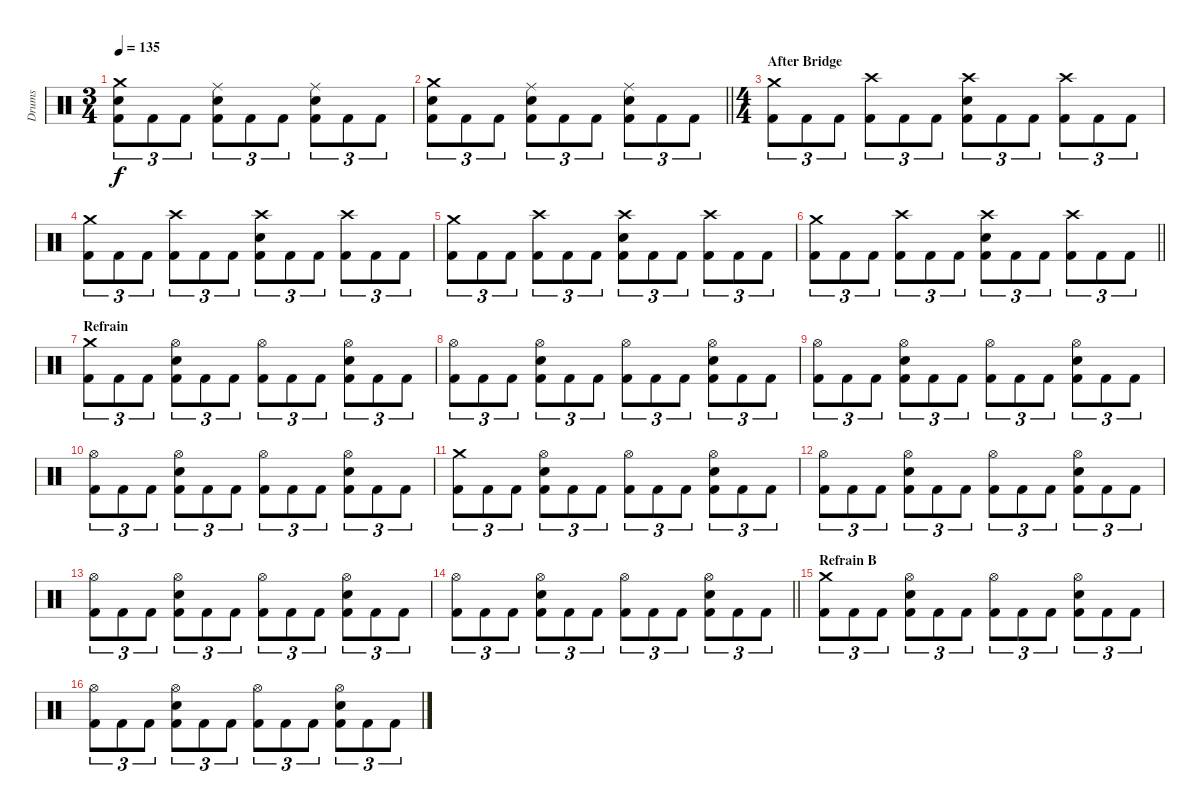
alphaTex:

\track ("Drums" "Drums") {instrument percussion}
\staff {score}
\articulation defaults
\ts (3 4)
\tempo 135
\clef neutral
\ks c
("Crash medium (hit)" "Snare (hit) 2" "Kick (hit) 2").8{tu (3 2) dy f} "Kick (hit) 2".8{tu (3 2)} "Kick (hit) 2".8{tu (3 2)} ("Ride (middle)" "Snare (hit) 2" "Kick (hit) 2").8{tu (3 2)} "Kick (hit) 2".8{tu (3 2)} "Kick (hit) 2".8{tu (3 2)} ("Ride (middle)" "Snare (hit) 2" "Kick (hit) 2").8{tu (3 2)} "Kick (hit) 2".8{tu (3 2)} "Kick (hit) 2".8{tu (3 2)} |
\barLineRight lightlight
("Crash medium (hit)" "Snare (hit) 2" "Kick (hit) 2").8{tu (3 2)} "Kick (hit) 2".8{tu (3 2)} "Kick (hit) 2".8{tu (3 2)} ("Ride (middle)" "Snare (hit) 2" "Kick (hit) 2").8{tu (3 2)} "Kick (hit) 2".8{tu (3 2)} "Kick (hit) 2".8{tu (3 2)} ("Ride (middle)" "Snare (hit) 2" "Kick (hit) 2").8{tu (3 2)} "Kick (hit) 2".8{tu (3 2)} "Kick (hit) 2".8{tu (3 2)} |
\ts (4 4)
\section ("" "After Bridge")
("Crash medium (hit)" "Kick (hit) 2").8{tu (3 2)} "Kick (hit) 2".8{tu (3 2)} "Kick (hit) 2".8{tu (3 2)} ("Crash high (hit)" "Kick (hit) 2").8{tu (3 2)} "Kick (hit) 2".8{tu (3 2)} "Kick (hit) 2".8{tu (3 2)} ("Crash high (hit)" "Snare (hit) 2" "Kick (hit) 2").8{tu (3 2)} "Kick (hit) 2".8{tu (3 2)} "Kick (hit) 2".8{tu (3 2)} ("Crash high (hit)" "Kick (hit) 2").8{tu (3 2)} "Kick (hit) 2".8{tu (3 2)} "Kick (hit) 2".8{tu (3 2)} |
("Crash medium (hit)" "Kick (hit) 2").8{tu (3 2)} "Kick (hit) 2".8{tu (3 2)} "Kick (hit) 2".8{tu (3 2)} ("Crash high (hit)" "Kick (hit) 2").8{tu (3 2)} "Kick (hit) 2".8{tu (3 2)} "Kick (hit) 2".8{tu (3 2)} ("Crash high (hit)" "Snare (hit) 2" "Kick (hit) 2").8{tu (3 2)} "Kick (hit) 2".8{tu (3 2)} "Kick (hit) 2".8{tu (3 2)} ("Crash high (hit)" "Kick (hit) 2").8{tu (3 2)} "Kick (hit) 2".8{tu (3 2)} "Kick (hit) 2".8{tu (3 2)} |
("Crash medium (hit)" "Kick (hit) 2").8{tu (3 2)} "Kick (hit) 2".8{tu (3 2)} "Kick (hit) 2".8{tu (3 2)} ("Crash high (hit)" "Kick (hit) 2").8{tu (3 2)} "Kick (hit) 2".8{tu (3 2)} "Kick (hit) 2".8{tu (3 2)} ("Crash high (hit)" "Snare (hit) 2" "Kick (hit) 2").8{tu (3 2)} "Kick (hit) 2".8{tu (3 2)} "Kick (hit) 2".8{tu (3 2)} ("Crash high (hit)" "Kick (hit) 2").8{tu (3 2)} "Kick (hit) 2".8{tu (3 2)} "Kick (hit) 2".8{tu (3 2)} |
\barLineRight lightlight
("Crash medium (hit)" "Kick (hit) 2").8{tu (3 2)} "Kick (hit) 2".8{tu (3 2)} "Kick (hit) 2".8{tu (3 2)} ("Crash high (hit)" "Kick (hit) 2").8{tu (3 2)} "Kick (hit) 2".8{tu (3 2)} "Kick (hit) 2".8{tu (3 2)} ("Crash high (hit)" "Snare (hit) 2" "Kick (hit) 2").8{tu (3 2)} "Kick (hit) 2".8{tu (3 2)} "Kick (hit) 2".8{tu (3 2)} ("Crash high (hit)" "Kick (hit) 2").8{tu (3 2)} "Kick (hit) 2".8{tu (3 2)} "Kick (hit) 2".8{tu (3 2)} |
\section ("" "Refrain")
("Crash medium (hit)" "Kick (hit) 2").8{tu (3 2)} "Kick (hit) 2".8{tu (3 2)} "Kick (hit) 2".8{tu (3 2)} ("Hi-Hat (open)" "Snare (hit) 2" "Kick (hit) 2").8{tu (3 2)} "Kick (hit) 2".8{tu (3 2)} "Kick (hit) 2".8{tu (3 2)} ("Hi-Hat (open)" "Kick (hit) 2").8{tu (3 2)} "Kick (hit) 2".8{tu (3 2)} "Kick (hit) 2".8{tu (3 2)} ("Hi-Hat (open)" "Snare (hit) 2" "Kick (hit) 2").8{tu (3 2)} "Kick (hit) 2".8{tu (3 2)} "Kick (hit) 2".8{tu (3 2)} |
("Hi-Hat (open)" "Kick (hit) 2").8{tu (3 2)} "Kick (hit) 2".8{tu (3 2)} "Kick (hit) 2".8{tu (3 2)} ("Hi-Hat (open)" "Snare (hit) 2" "Kick (hit) 2").8{tu (3 2)} "Kick (hit) 2".8{tu (3 2)} "Kick (hit) 2".8{tu (3 2)} ("Hi-Hat (open)" "Kick (hit) 2").8{tu (3 2)} "Kick (hit) 2".8{tu (3 2)} "Kick (hit) 2".8{tu (3 2)} ("Hi-Hat (open)" "Snare (hit) 2" "Kick (hit) 2").8{tu (3 2)} "Kick (hit) 2".8{tu (3 2)} "Kick (hit) 2".8{tu (3 2)} |
("Hi-Hat (open)" "Kick (hit) 2").8{tu (3 2)} "Kick (hit) 2".8{tu (3 2)} "Kick (hit) 2".8{tu (3 2)} ("Hi-Hat (open)" "Snare (hit) 2" "Kick (hit) 2").8{tu (3 2)} "Kick (hit) 2".8{tu (3 2)} "Kick (hit) 2".8{tu (3 2)} ("Hi-Hat (open)" "Kick (hit) 2").8{tu (3 2)} "Kick (hit) 2".8{tu (3 2)} "Kick (hit) 2".8{tu (3 2)} ("Hi-Hat (open)" "Snare (hit) 2" "Kick (hit) 2").8{tu (3 2)} "Kick (hit) 2".8{tu (3 2)} "Kick (hit) 2".8{tu (3 2)} |
("Hi-Hat (open)" "Kick (hit) 2").8{tu (3 2)} "Kick (hit) 2".8{tu (3 2)} "Kick (hit) 2".8{tu (3 2)} ("Hi-Hat (open)" "Snare (hit) 2" "Kick (hit) 2").8{tu (3 2)} "Kick (hit) 2".8{tu (3 2)} "Kick (hit) 2".8{tu (3 2)} ("Hi-Hat (open)" "Kick (hit) 2").8{tu (3 2)} "Kick (hit) 2".8{tu (3 2)} "Kick (hit) 2".8{tu (3 2)} ("Hi-Hat (open)" "Snare (hit) 2" "Kick (hit) 2").8{tu (3 2)} "Kick (hit) 2".8{tu (3 2)} "Kick (hit) 2".8{tu (3 2)} |
("Crash medium (hit)" "Kick (hit) 2").8{tu (3 2)} "Kick (hit) 2".8{tu (3 2)} "Kick (hit) 2".8{tu (3 2)} ("Hi-Hat (open)" "Snare (hit) 2" "Kick (hit) 2").8{tu (3 2)} "Kick (hit) 2".8{tu (3 2)} "Kick (hit) 2".8{tu (3 2)} ("Hi-Hat (open)" "Kick (hit) 2").8{tu (3 2)} "Kick (hit) 2".8{tu (3 2)} "Kick (hit) 2".8{tu (3 2)} ("Hi-Hat (open)" "Snare (hit) 2" "Kick (hit) 2").8{tu (3 2)} "Kick (hit) 2".8{tu (3 2)} "Kick (hit) 2".8{tu (3 2)} |
("Hi-Hat (open)" "Kick (hit) 2").8{tu (3 2)} "Kick (hit) 2".8{tu (3 2)} "Kick (hit) 2".8{tu (3 2)} ("Hi-Hat (open)" "Snare (hit) 2" "Kick (hit) 2").8{tu (3 2)} "Kick (hit) 2".8{tu (3 2)} "Kick (hit) 2".8{tu (3 2)} ("Hi-Hat (open)" "Kick (hit) 2").8{tu (3 2)} "Kick (hit) 2".8{tu (3 2)} "Kick (hit) 2".8{tu (3 2)} ("Hi-Hat (open)" "Snare (hit) 2" "Kick (hit) 2").8{tu (3 2)} "Kick (hit) 2".8{tu (3 2)} "Kick (hit) 2".8{tu (3 2)} |
("Hi-Hat (open)" "Kick (hit) 2").8{tu (3 2)} "Kick (hit) 2".8{tu (3 2)} "Kick (hit) 2".8{tu (3 2)} ("Hi-Hat (open)" "Snare (hit) 2" "Kick (hit) 2").8{tu (3 2)} "Kick (hit) 2".8{tu (3 2)} "Kick (hit) 2".8{tu (3 2)} ("Hi-Hat (open)" "Kick (hit) 2").8{tu (3 2)} "Kick (hit) 2".8{tu (3 2)} "Kick (hit) 2".8{tu (3 2)} ("Hi-Hat (open)" "Snare (hit) 2" "Kick (hit) 2").8{tu (3 2)} "Kick (hit) 2".8{tu (3 2)} "Kick (hit) 2".8{tu (3 2)} |
\barLineRight lightlight
("Hi-Hat (open)" "Kick (hit) 2").8{tu (3 2)} "Kick (hit) 2".8{tu (3 2)} "Kick (hit) 2".8{tu (3 2)} ("Hi-Hat (open)" "Snare (hit) 2" "Kick (hit) 2").8{tu (3 2)} "Kick (hit) 2".8{tu (3 2)} "Kick (hit) 2".8{tu (3 2)} ("Hi-Hat (open)" "Kick (hit) 2").8{tu (3 2)} "Kick (hit) 2".8{tu (3 2)} "Kick (hit) 2".8{tu (3 2)} ("Hi-Hat (open)" "Snare (hit) 2" "Kick (hit) 2").8{tu (3 2)} "Kick (hit) 2".8{tu (3 2)} "Kick (hit) 2".8{tu (3 2)} |
\section ("" "Refrain B")
("Crash medium (hit)" "Kick (hit) 2").8{tu (3 2)} "Kick (hit) 2".8{tu (3 2)} "Kick (hit) 2".8{tu (3 2)} ("Hi-Hat (open)" "Snare (hit) 2" "Kick (hit) 2").8{tu (3 2)} "Kick (hit) 2".8{tu (3 2)} "Kick (hit) 2".8{tu (3 2)} ("Hi-Hat (open)" "Kick (hit) 2").8{tu (3 2)} "Kick (hit) 2".8{tu (3 2)} "Kick (hit) 2".8{tu (3 2)} ("Hi-Hat (open)" "Snare (hit) 2" "Kick (hit) 2").8{tu (3 2)} "Kick (hit) 2".8{tu (3 2)} "Kick (hit) 2".8{tu (3 2)} |
("Hi-Hat (open)" "Kick (hit) 2").8{tu (3 2)} "Kick (hit) 2".8{tu (3 2)} "Kick (hit) 2".8{tu (3 2)} ("Hi-Hat (open)" "Snare (hit) 2" "Kick (hit) 2").8{tu (3 2)} "Kick (hit) 2".8{tu (3 2)} "Kick (hit) 2".8{tu (3 2)} ("Hi-Hat (open)" "Kick (hit) 2").8{tu (3 2)} "Kick (hit) 2".8{tu (3 2)} "Kick (hit) 2".8{tu (3 2)} ("Hi-Hat (open)" "Snare (hit) 2" "Kick (hit) 2").8{tu (3 2)} "Kick (hit) 2".8{tu (3 2)} "Kick (hit) 2".8{tu (3 2)}
